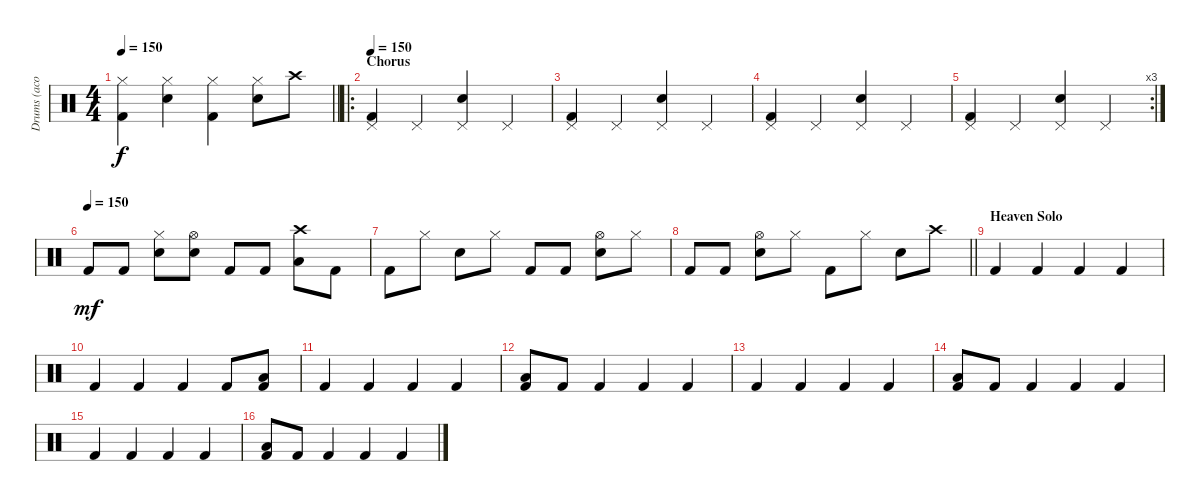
\track ("Drums (acoustic drumset)" "Drums (aco") {instrument percussion}
\staff {score}
\articulation defaults
\ts (4 4)
\tempo 150
\clef neutral
\barLineRight lightlight
\ks c
("Hi-Hat (closed)" "Kick (hit) 2").4{dy f} ("Hi-Hat (closed)" "Electric Snare (hit)").4 ("Hi-Hat (closed)" "Kick (hit) 2").4 ("Hi-Hat (closed)" "Electric Snare (hit)").8 "Crash high (hit)".8 |
\ro
\section ("" "Chorus")
\tempo 150
("Pedal Hi-Hat (hit)" "Kick (hit) 2").4 "Pedal Hi-Hat (hit)".4 ("Pedal Hi-Hat (hit)" "Electric Snare (hit)").4 "Pedal Hi-Hat (hit)".4 |
("Pedal Hi-Hat (hit)" "Kick (hit) 2").4 "Pedal Hi-Hat (hit)".4 ("Pedal Hi-Hat (hit)" "Electric Snare (hit)").4 "Pedal Hi-Hat (hit)".4 |
("Pedal Hi-Hat (hit)" "Kick (hit) 2").4 "Pedal Hi-Hat (hit)".4 ("Pedal Hi-Hat (hit)" "Electric Snare (hit)").4 "Pedal Hi-Hat (hit)".4 |
\rc 3
("Pedal Hi-Hat (hit)" "Kick (hit) 2").4 "Pedal Hi-Hat (hit)".4 ("Pedal Hi-Hat (hit)" "Electric Snare (hit)").4 "Pedal Hi-Hat (hit)".4 |
\tempo (150)
"Kick (hit) 2".8{dy mf} "Kick (hit) 2".8 ("Hi-Hat (closed)" "Electric Snare (hit)").8 ("Hi-Hat (open)" "Electric Snare (hit)").8 "Kick (hit) 2".8 "Kick (hit) 2".8 ("Crash high (hit)" "Low Floor Tom (hit)").8 "Kick (hit) 2".8 |
"Kick (hit) 2".8 "Hi-Hat (closed)".8 "Electric Snare (hit)".8 "Hi-Hat (closed)".8 "Kick (hit) 2".8 "Kick (hit) 2".8 ("Hi-Hat (open)" "Electric Snare (hit)").8 "Hi-Hat (closed)".8 |
\barLineRight lightlight "Kick (hit) 2".8 "Kick (hit) 2".8
("Hi-Hat (open)" "Electric Snare (hit)").8 "Hi-Hat (closed)".8 "Kick (hit) 2".8 "Hi-Hat (closed)".8 "Electric Snare (hit)".8 "Crash high (hit)".8 |
\section ("" "Heaven Solo")
"Kick (hit) 2".4 "Kick (hit) 2".4 "Kick (hit) 2".4 "Kick (hit) 2".4 |
"Kick (hit) 2".4 "Kick (hit) 2".4 "Kick (hit) 2".4 "Kick (hit) 2".8 ("Low Floor Tom (hit)" "Kick (hit) 2").8 |
"Kick (hit) 2".4 "Kick (hit) 2".4 "Kick (hit) 2".4 "Kick (hit) 2".4 |
("Low Floor Tom (hit)" "Kick (hit) 2").8 "Kick (hit) 2".8 "Kick (hit) 2".4 "Kick (hit) 2".4 "Kick (hit) 2".4 |
"Kick (hit) 2".4 "Kick (hit) 2".4 "Kick (hit) 2".4 "Kick (hit) 2".4 |
("Low Floor Tom (hit)" "Kick (hit) 2").8 "Kick (hit) 2".8 "Kick (hit) 2".4 "Kick (hit) 2".4 "Kick (hit) 2".4 |
"Kick (hit) 2".4 "Kick (hit) 2".4 "Kick (hit) 2".4 "Kick (hit) 2".4 |
("Low Floor Tom (hit)" "Kick (hit) 2").8 "Kick (hit) 2".8 "Kick (hit) 2".4 "Kick (hit) 2".4 "Kick (hit) 2".4
